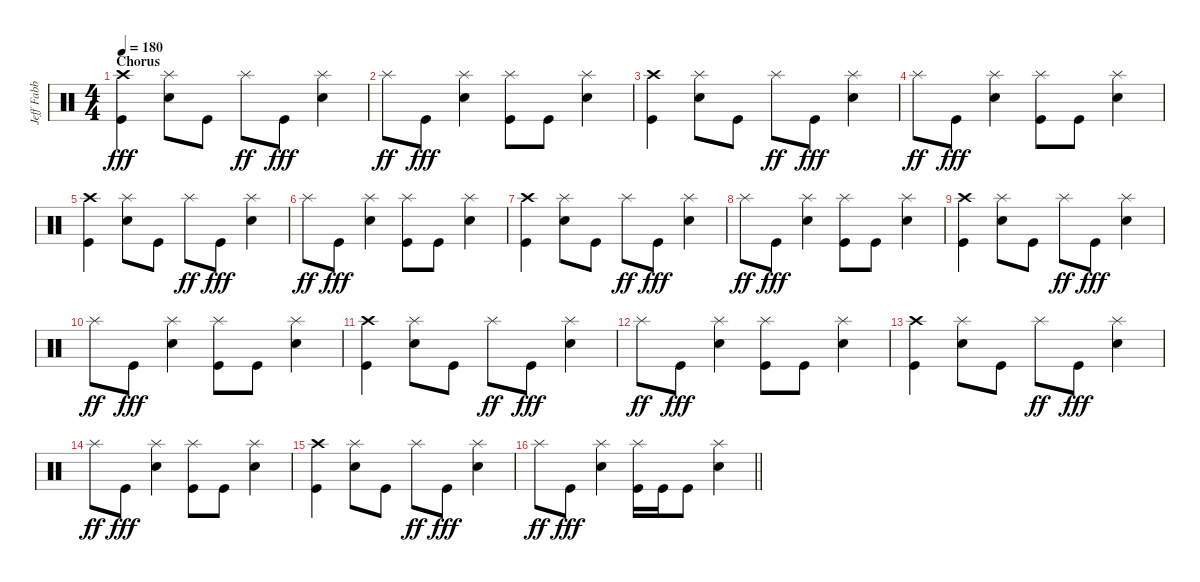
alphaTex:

\track ("Jeff Fabb (Drums)" "Jeff Fabb ") {instrument percussion}
\staff {score}
\articulation defaults
\ts (4 4)
\section ("" "Chorus")
\tempo 180
\clef neutral
\ks c
("Crash high (hit)" "Kick (hit)").4{dy fff} ("Splash (hit)" "Electric Snare (hit)").8 "Kick (hit)".8 "Splash (hit)".8{dy ff} "Kick (hit)".8{dy fff} ("Splash (hit)" "Electric Snare (hit)").4 |
"Splash (hit)".8{dy ff} "Kick (hit)".8{dy fff} ("Splash (hit)" "Electric Snare (hit)").4 ("Splash (hit)" "Kick (hit)").8 "Kick (hit)".8 ("Splash (hit)" "Electric Snare (hit)").4 |
("Crash high (hit)" "Kick (hit)").4 ("Splash (hit)" "Electric Snare (hit)").8 "Kick (hit)".8 "Splash (hit)".8{dy ff} "Kick (hit)".8{dy fff} ("Splash (hit)" "Electric Snare (hit)").4 |
"Splash (hit)".8{dy ff} "Kick (hit)".8{dy fff} ("Splash (hit)" "Electric Snare (hit)").4 ("Splash (hit)" "Kick (hit)").8 "Kick (hit)".8 ("Splash (hit)" "Electric Snare (hit)").4 |
("Crash high (hit)" "Kick (hit)").4 ("Splash (hit)" "Electric Snare (hit)").8 "Kick (hit)".8 "Splash (hit)".8{dy ff} "Kick (hit)".8{dy fff} ("Splash (hit)" "Electric Snare (hit)").4 |
"Splash (hit)".8{dy ff} "Kick (hit)".8{dy fff} ("Splash (hit)" "Electric Snare (hit)").4 ("Splash (hit)" "Kick (hit)").8 "Kick (hit)".8 ("Splash (hit)" "Electric Snare (hit)").4 |
("Crash high (hit)" "Kick (hit)").4 ("Splash (hit)" "Electric Snare (hit)").8 "Kick (hit)".8 "Splash (hit)".8{dy ff} "Kick (hit)".8{dy fff} ("Splash (hit)" "Electric Snare (hit)").4 |
"Splash (hit)".8{dy ff} "Kick (hit)".8{dy fff} ("Splash (hit)" "Electric Snare (hit)").4 ("Splash (hit)" "Kick (hit)").8 "Kick (hit)".8 ("Splash (hit)" "Electric Snare (hit)").4 |
("Crash high (hit)" "Kick (hit)").4 ("Splash (hit)" "Electric Snare (hit)").8 "Kick (hit)".8 "Splash (hit)".8{dy ff} "Kick (hit)".8{dy fff} ("Splash (hit)" "Electric Snare (hit)").4 |
"Splash (hit)".8{dy ff} "Kick (hit)".8{dy fff} ("Splash (hit)" "Electric Snare (hit)").4 ("Splash (hit)" "Kick (hit)").8 "Kick (hit)".8 ("Splash (hit)" "Electric Snare (hit)").4 |
("Crash high (hit)" "Kick (hit)").4 ("Splash (hit)" "Electric Snare (hit)").8 "Kick (hit)".8 "Splash (hit)".8{dy ff} "Kick (hit)".8{dy fff} ("Splash (hit)" "Electric Snare (hit)").4 |
"Splash (hit)".8{dy ff} "Kick (hit)".8{dy fff} ("Splash (hit)" "Electric Snare (hit)").4 ("Splash (hit)" "Kick (hit)").8 "Kick (hit)".8 ("Splash (hit)" "Electric Snare (hit)").4 |
("Crash high (hit)" "Kick (hit)").4 ("Splash (hit)" "Electric Snare (hit)").8 "Kick (hit)".8 "Splash (hit)".8{dy ff} "Kick (hit)".8{dy fff} ("Splash (hit)" "Electric Snare (hit)").4 |
"Splash (hit)".8{dy ff} "Kick (hit)".8{dy fff} ("Splash (hit)" "Electric Snare (hit)").4 ("Splash (hit)" "Kick (hit)").8 "Kick (hit)".8 ("Splash (hit)" "Electric Snare (hit)").4 |
("Crash high (hit)" "Kick (hit)").4 ("Splash (hit)" "Electric Snare (hit)").8 "Kick (hit)".8 "Splash (hit)".8{dy ff} "Kick (hit)".8{dy fff} ("Splash (hit)" "Electric Snare (hit)").4 |
\barLineRight lightlight "Splash (hit)".8{dy ff} "Kick (hit)".8{dy fff}
("Splash (hit)" "Electric Snare (hit)").4 ("Splash (hit)" "Kick (hit)").16 "Kick (hit)".16 "Kick (hit)".8 ("Splash (hit)" "Electric Snare (hit)").4
